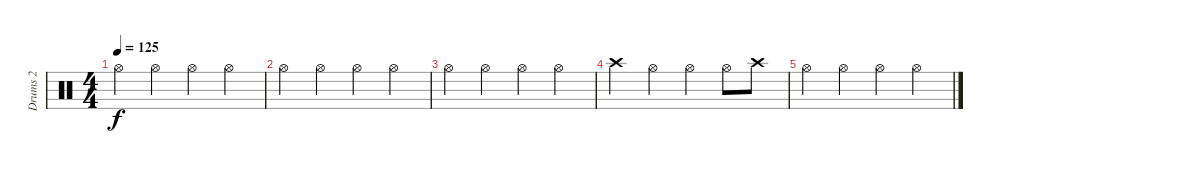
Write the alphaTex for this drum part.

\track ("Drums 2" "Drums 2") {instrument percussion}
\staff {score}
\articulation defaults
\ts (4 4)
\tempo 125
\clef neutral
\ks c "Hi-Hat (open)".4{dy f} "Hi-Hat (open)".4 "Hi-Hat (open)".4 "Hi-Hat (open)".4
|
"Hi-Hat (open)".4 "Hi-Hat (open)".4 "Hi-Hat (open)".4 "Hi-Hat (open)".4 |
"Hi-Hat (open)".4 "Hi-Hat (open)".4 "Hi-Hat (open)".4 "Hi-Hat (open)".4 |
"Crash high (hit)".4 "Hi-Hat (open)".4 "Hi-Hat (open)".4 "Hi-Hat (open)".8 "Crash high (hit)".8 |
"Hi-Hat (open)".4 "Hi-Hat (open)".4 "Hi-Hat (open)".4 "Hi-Hat (open)".4
